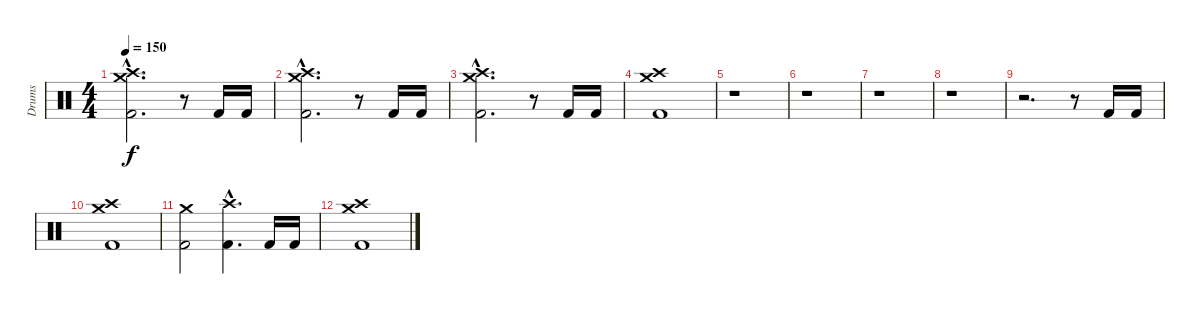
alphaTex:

\track ("Drums" "Drums") {instrument percussion}
\staff {score}
\articulation defaults
\ts (4 4)
\tempo 150
\clef neutral
\ks c
("Crash medium (hit)"{hac} "Crash high (hit)"{hac} "Kick (hit) 2"{hac}).2{d dy f} r.8 "Kick (hit) 2".16 "Kick (hit) 2".16 |
("Crash medium (hit)"{hac} "Crash high (hit)"{hac} "Kick (hit) 2"{hac}).2{d} r.8 "Kick (hit) 2".16 "Kick (hit) 2".16 |
("Crash medium (hit)"{hac} "Crash high (hit)"{hac} "Kick (hit) 2"{hac}).2{d} r.8 "Kick (hit) 2".16 "Kick (hit) 2".16 |
("Crash medium (hit)" "Crash high (hit)" "Kick (hit) 2").1 |
r.1 |
r.1 |
r.1 |
r.1 |
r.2{d} r.8 "Kick (hit) 2".16 "Kick (hit) 2".16 |
("Crash medium (hit)" "Crash high (hit)" "Kick (hit) 2").1 |
("Crash medium (hit)" "Kick (hit) 2").2 ("Crash high (hit)"{hac} "Kick (hit) 2"{hac}).4{d} "Kick (hit) 2".16 "Kick (hit) 2".16 |
("Crash medium (hit)" "Crash high (hit)" "Kick (hit) 2").1
